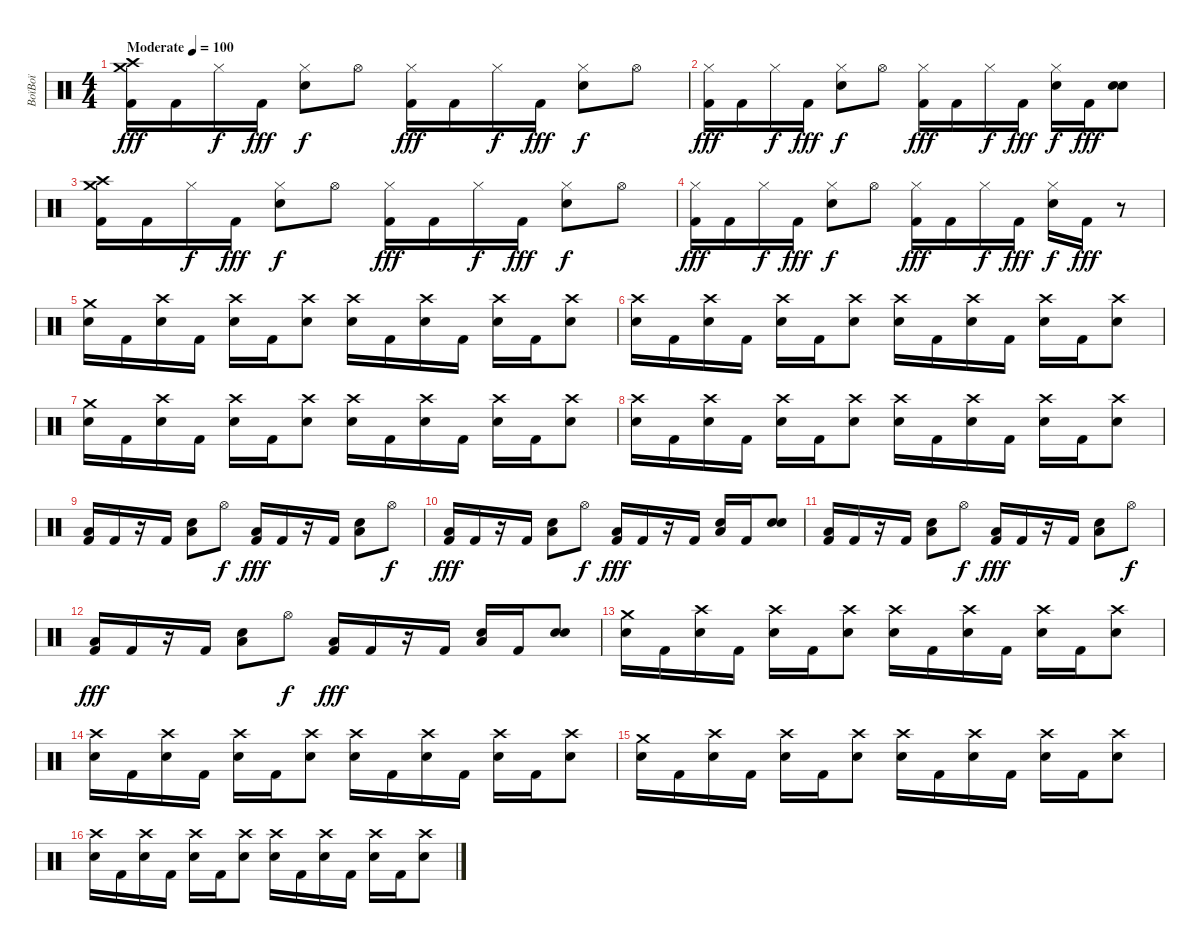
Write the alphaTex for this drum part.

\track ("BoïBoï" "BoïBoï") {instrument percussion}
\staff {score}
\articulation defaults
\ts (4 4)
\tempo (100 "Moderate")
\clef neutral
\ks c
("Crash medium (hit)" "Crash high (hit)" "Kick (hit) 2").16{dy fff} "Kick (hit) 2".16 "Hi-Hat (closed)".16{dy f} "Kick (hit) 2".16{dy fff} ("Hi-Hat (closed)" "Electric Snare (hit)").8{dy f} "Hi-Hat (open)".8 ("Hi-Hat (closed)" "Kick (hit) 2").16{dy fff} "Kick (hit) 2".16 "Hi-Hat (closed)".16{dy f} "Kick (hit) 2".16{dy fff} ("Hi-Hat (closed)" "Electric Snare (hit)").8{dy f} "Hi-Hat (open)".8 |
("Hi-Hat (closed)" "Kick (hit) 2").16{dy fff} "Kick (hit) 2".16 "Hi-Hat (closed)".16{dy f} "Kick (hit) 2".16{dy fff} ("Hi-Hat (closed)" "Electric Snare (hit)").8{dy f} "Hi-Hat (open)".8 ("Hi-Hat (closed)" "Kick (hit) 2").16{dy fff} "Kick (hit) 2".16 "Hi-Hat (closed)".16{dy f} "Kick (hit) 2".16{dy fff} ("Hi-Hat (closed)" "Electric Snare (hit)").16{dy f} "Kick (hit) 2".16{dy fff} ("Electric Snare (hit)" "Snare (hit) 2").8 |
("Crash medium (hit)" "Crash high (hit)" "Kick (hit) 2").16 "Kick (hit) 2".16 "Hi-Hat (closed)".16{dy f} "Kick (hit) 2".16{dy fff} ("Hi-Hat (closed)" "Electric Snare (hit)").8{dy f} "Hi-Hat (open)".8 ("Hi-Hat (closed)" "Kick (hit) 2").16{dy fff} "Kick (hit) 2".16 "Hi-Hat (closed)".16{dy f} "Kick (hit) 2".16{dy fff} ("Hi-Hat (closed)" "Electric Snare (hit)").8{dy f} "Hi-Hat (open)".8 |
("Hi-Hat (closed)" "Kick (hit) 2").16{dy fff} "Kick (hit) 2".16 "Hi-Hat (closed)".16{dy f} "Kick (hit) 2".16{dy fff} ("Hi-Hat (closed)" "Electric Snare (hit)").8{dy f} "Hi-Hat (open)".8 ("Hi-Hat (closed)" "Kick (hit) 2").16{dy fff} "Kick (hit) 2".16 "Hi-Hat (closed)".16{dy f} "Kick (hit) 2".16{dy fff} ("Hi-Hat (closed)" "Electric Snare (hit)").16{dy f} "Kick (hit) 2".16{dy fff} r.8 |
("Crash medium (hit)" "Electric Snare (hit)").16 "Kick (hit) 2".16 ("Crash high (hit)" "Electric Snare (hit)").16 "Kick (hit) 2".16 ("Crash high (hit)" "Electric Snare (hit)").16 "Kick (hit) 2".16 ("Crash high (hit)" "Electric Snare (hit)").8 ("Crash high (hit)" "Electric Snare (hit)").16 "Kick (hit) 2".16 ("Crash high (hit)" "Electric Snare (hit)").16 "Kick (hit) 2".16 ("Crash high (hit)" "Electric Snare (hit)").16 "Kick (hit) 2".16 ("Crash high (hit)" "Electric Snare (hit)").8 |
("Crash high (hit)" "Electric Snare (hit)").16 "Kick (hit) 2".16 ("Crash high (hit)" "Electric Snare (hit)").16 "Kick (hit) 2".16 ("Crash high (hit)" "Electric Snare (hit)").16 "Kick (hit) 2".16 ("Crash high (hit)" "Electric Snare (hit)").8 ("Crash high (hit)" "Electric Snare (hit)").16 "Kick (hit) 2".16 ("Crash high (hit)" "Electric Snare (hit)").16 "Kick (hit) 2".16 ("Crash high (hit)" "Electric Snare (hit)").16 "Kick (hit) 2".16 ("Crash high (hit)" "Electric Snare (hit)").8 |
("Crash medium (hit)" "Electric Snare (hit)").16 "Kick (hit) 2".16 ("Crash high (hit)" "Electric Snare (hit)").16 "Kick (hit) 2".16 ("Crash high (hit)" "Electric Snare (hit)").16 "Kick (hit) 2".16 ("Crash high (hit)" "Electric Snare (hit)").8 ("Crash high (hit)" "Electric Snare (hit)").16 "Kick (hit) 2".16 ("Crash high (hit)" "Electric Snare (hit)").16 "Kick (hit) 2".16 ("Crash high (hit)" "Electric Snare (hit)").16 "Kick (hit) 2".16 ("Crash high (hit)" "Electric Snare (hit)").8 |
("Crash high (hit)" "Electric Snare (hit)").16 "Kick (hit) 2".16 ("Crash high (hit)" "Electric Snare (hit)").16 "Kick (hit) 2".16 ("Crash high (hit)" "Electric Snare (hit)").16 "Kick (hit) 2".16 ("Crash high (hit)" "Electric Snare (hit)").8 ("Crash high (hit)" "Electric Snare (hit)").16 "Kick (hit) 2".16 ("Crash high (hit)" "Electric Snare (hit)").16 "Kick (hit) 2".16 ("Crash high (hit)" "Electric Snare (hit)").16 "Kick (hit) 2".16 ("Crash high (hit)" "Electric Snare (hit)").8 |
("Low Floor Tom (hit)" "Kick (hit) 2").16 "Kick (hit) 2".16 r.16 "Kick (hit) 2".16 ("Electric Snare (hit)" "Low Floor Tom (hit)").8 "Hi-Hat (open)".8{dy f} ("Low Floor Tom (hit)" "Kick (hit) 2").16{dy fff} "Kick (hit) 2".16 r.16 "Kick (hit) 2".16 ("Electric Snare (hit)" "Low Floor Tom (hit)").8 "Hi-Hat (open)".8{dy f} |
("Low Floor Tom (hit)" "Kick (hit) 2").16{dy fff} "Kick (hit) 2".16 r.16 "Kick (hit) 2".16 ("Electric Snare (hit)" "Low Floor Tom (hit)").8 "Hi-Hat (open)".8{dy f} ("Low Floor Tom (hit)" "Kick (hit) 2").16{dy fff} "Kick (hit) 2".16 r.16 "Kick (hit) 2".16 ("Electric Snare (hit)" "Low Floor Tom (hit)").16 "Kick (hit) 2".16 ("Electric Snare (hit)" "Snare (hit) 2").8 |
("Low Floor Tom (hit)" "Kick (hit) 2").16 "Kick (hit) 2".16 r.16 "Kick (hit) 2".16 ("Electric Snare (hit)" "Low Floor Tom (hit)").8 "Hi-Hat (open)".8{dy f} ("Low Floor Tom (hit)" "Kick (hit) 2").16{dy fff} "Kick (hit) 2".16 r.16 "Kick (hit) 2".16 ("Electric Snare (hit)" "Low Floor Tom (hit)").8 "Hi-Hat (open)".8{dy f} |
("Low Floor Tom (hit)" "Kick (hit) 2").16{dy fff} "Kick (hit) 2".16 r.16 "Kick (hit) 2".16 ("Electric Snare (hit)" "Low Floor Tom (hit)").8 "Hi-Hat (open)".8{dy f} ("Low Floor Tom (hit)" "Kick (hit) 2").16{dy fff} "Kick (hit) 2".16 r.16 "Kick (hit) 2".16 ("Electric Snare (hit)" "Low Floor Tom (hit)").16 "Kick (hit) 2".16 ("Electric Snare (hit)" "Snare (hit) 2").8 |
("Crash medium (hit)" "Electric Snare (hit)").16 "Kick (hit) 2".16 ("Crash high (hit)" "Electric Snare (hit)").16 "Kick (hit) 2".16 ("Crash high (hit)" "Electric Snare (hit)").16 "Kick (hit) 2".16 ("Crash high (hit)" "Electric Snare (hit)").8 ("Crash high (hit)" "Electric Snare (hit)").16 "Kick (hit) 2".16 ("Crash high (hit)" "Electric Snare (hit)").16 "Kick (hit) 2".16 ("Crash high (hit)" "Electric Snare (hit)").16 "Kick (hit) 2".16 ("Crash high (hit)" "Electric Snare (hit)").8 |
("Crash high (hit)" "Electric Snare (hit)").16 "Kick (hit) 2".16 ("Crash high (hit)" "Electric Snare (hit)").16 "Kick (hit) 2".16 ("Crash high (hit)" "Electric Snare (hit)").16 "Kick (hit) 2".16 ("Crash high (hit)" "Electric Snare (hit)").8 ("Crash high (hit)" "Electric Snare (hit)").16 "Kick (hit) 2".16 ("Crash high (hit)" "Electric Snare (hit)").16 "Kick (hit) 2".16 ("Crash high (hit)" "Electric Snare (hit)").16 "Kick (hit) 2".16 ("Crash high (hit)" "Electric Snare (hit)").8 |
("Crash medium (hit)" "Electric Snare (hit)").16 "Kick (hit) 2".16 ("Crash high (hit)" "Electric Snare (hit)").16 "Kick (hit) 2".16 ("Crash high (hit)" "Electric Snare (hit)").16 "Kick (hit) 2".16 ("Crash high (hit)" "Electric Snare (hit)").8 ("Crash high (hit)" "Electric Snare (hit)").16 "Kick (hit) 2".16 ("Crash high (hit)" "Electric Snare (hit)").16 "Kick (hit) 2".16 ("Crash high (hit)" "Electric Snare (hit)").16 "Kick (hit) 2".16 ("Crash high (hit)" "Electric Snare (hit)").8 |
("Crash high (hit)" "Electric Snare (hit)").16 "Kick (hit) 2".16 ("Crash high (hit)" "Electric Snare (hit)").16 "Kick (hit) 2".16 ("Crash high (hit)" "Electric Snare (hit)").16 "Kick (hit) 2".16 ("Crash high (hit)" "Electric Snare (hit)").8 ("Crash high (hit)" "Electric Snare (hit)").16 "Kick (hit) 2".16 ("Crash high (hit)" "Electric Snare (hit)").16 "Kick (hit) 2".16 ("Crash high (hit)" "Electric Snare (hit)").16 "Kick (hit) 2".16 ("Crash high (hit)" "Electric Snare (hit)").8
